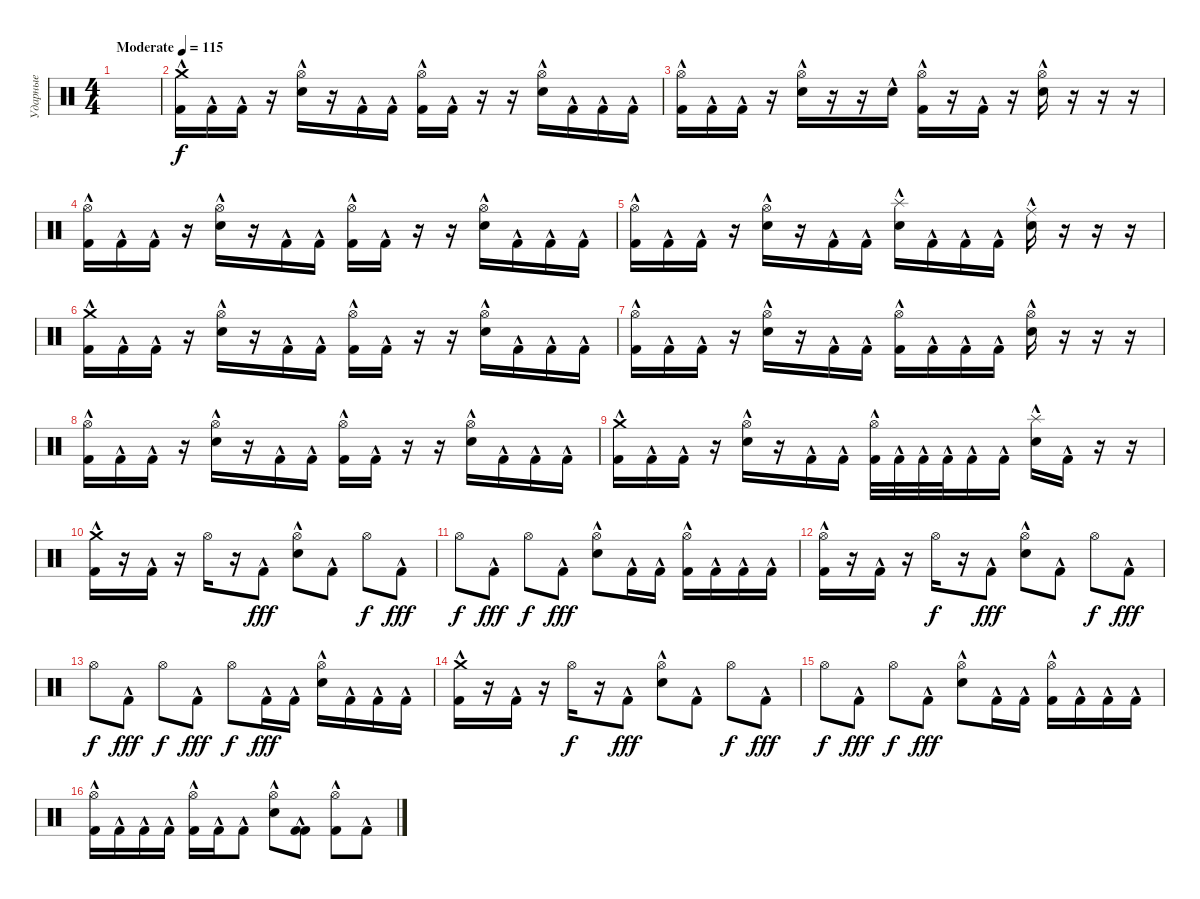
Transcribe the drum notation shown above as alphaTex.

\track ("Ударные" "Ударные") {instrument percussion}
\staff
\articulation defaults
\ts (4 4)
\tempo (115 "Moderate")
\clef neutral
\ks c
|
("Crash medium (hit)" "Kick (hit) 2"{hac}).16 "Kick (hit) 2"{hac}.16 "Kick (hit) 2"{hac}.16 r.16 ("Hi-Hat (open)" "Snare (hit) 2"{hac}).16 r.16 "Kick (hit) 2"{hac}.16 "Kick (hit) 2"{hac}.16 ("Hi-Hat (open)" "Kick (hit) 2"{hac}).16 "Kick (hit) 2"{hac}.16 r.16 r.16 ("Hi-Hat (open)" "Snare (hit) 2"{hac}).16 "Kick (hit) 2"{hac}.16 "Kick (hit) 2"{hac}.16 "Kick (hit) 2"{hac}.16 |
("Hi-Hat (open)" "Kick (hit) 2"{hac}).16 "Kick (hit) 2"{hac}.16 "Kick (hit) 2"{hac}.16 r.16 ("Hi-Hat (open)" "Snare (hit) 2"{hac}).16 r.16 r.16 "Snare (hit) 2"{hac}.16 ("Hi-Hat (open)" "Kick (hit) 2"{hac}).16 r.16 "Kick (hit) 2"{hac}.16 r.16 ("Hi-Hat (open)" "Snare (hit) 2"{hac}).16 r.16 r.16 r.16 |
("Hi-Hat (open)" "Kick (hit) 2"{hac}).16 "Kick (hit) 2"{hac}.16 "Kick (hit) 2"{hac}.16 r.16 ("Hi-Hat (open)" "Snare (hit) 2"{hac}).16 r.16 "Kick (hit) 2"{hac}.16 "Kick (hit) 2"{hac}.16 ("Hi-Hat (open)" "Kick (hit) 2"{hac}).16 "Kick (hit) 2"{hac}.16 r.16 r.16 ("Hi-Hat (open)" "Snare (hit) 2"{hac}).16 "Kick (hit) 2"{hac}.16 "Kick (hit) 2"{hac}.16 "Kick (hit) 2"{hac}.16 |
("Hi-Hat (open)" "Kick (hit) 2"{hac}).16 "Kick (hit) 2"{hac}.16 "Kick (hit) 2"{hac}.16 r.16 ("Hi-Hat (open)" "Snare (hit) 2"{hac}).16 r.16 "Kick (hit) 2"{hac}.16 "Kick (hit) 2"{hac}.16 ("Splash (hit)" "Snare (hit) 2"{hac}).16 "Kick (hit) 2"{hac}.16 "Kick (hit) 2"{hac}.16 "Kick (hit) 2"{hac}.16 ("Ride (middle)" "Snare (hit) 2"{hac}).16 r.16 r.16 r.16 |
("Crash medium (hit)" "Kick (hit) 2"{hac}).16 "Kick (hit) 2"{hac}.16 "Kick (hit) 2"{hac}.16 r.16 ("Hi-Hat (open)" "Snare (hit) 2"{hac}).16 r.16 "Kick (hit) 2"{hac}.16 "Kick (hit) 2"{hac}.16 ("Hi-Hat (open)" "Kick (hit) 2"{hac}).16 "Kick (hit) 2"{hac}.16 r.16 r.16 ("Hi-Hat (open)" "Snare (hit) 2"{hac}).16 "Kick (hit) 2"{hac}.16 "Kick (hit) 2"{hac}.16 "Kick (hit) 2"{hac}.16 |
("Hi-Hat (open)" "Kick (hit) 2"{hac}).16 "Kick (hit) 2"{hac}.16 "Kick (hit) 2"{hac}.16 r.16 ("Hi-Hat (open)" "Snare (hit) 2"{hac}).16 r.16 "Kick (hit) 2"{hac}.16 "Kick (hit) 2"{hac}.16 ("Hi-Hat (open)" "Kick (hit) 2"{hac}).16 "Kick (hit) 2"{hac}.16 "Kick (hit) 2"{hac}.16 "Kick (hit) 2"{hac}.16 ("Hi-Hat (open)" "Snare (hit) 2"{hac}).16 r.16 r.16 r.16 |
("Hi-Hat (open)" "Kick (hit) 2"{hac}).16 "Kick (hit) 2"{hac}.16 "Kick (hit) 2"{hac}.16 r.16 ("Hi-Hat (open)" "Snare (hit) 2"{hac}).16 r.16 "Kick (hit) 2"{hac}.16 "Kick (hit) 2"{hac}.16 ("Hi-Hat (open)" "Kick (hit) 2"{hac}).16 "Kick (hit) 2"{hac}.16 r.16 r.16 ("Hi-Hat (open)" "Snare (hit) 2"{hac}).16 "Kick (hit) 2"{hac}.16 "Kick (hit) 2"{hac}.16 "Kick (hit) 2"{hac}.16 |
("Crash medium (hit)" "Kick (hit) 2"{hac}).16 "Kick (hit) 2"{hac}.16 "Kick (hit) 2"{hac}.16 r.16 ("Hi-Hat (open)" "Snare (hit) 2"{hac}).16 r.16 "Kick (hit) 2"{hac}.16 "Kick (hit) 2"{hac}.16 ("Hi-Hat (open)" "Kick (hit) 2"{hac}).32 "Kick (hit) 2"{hac}.32 "Kick (hit) 2"{hac}.32 "Kick (hit) 2"{hac}.32 "Kick (hit) 2"{hac}.16 "Kick (hit) 2"{hac}.16 ("Splash (hit)" "Snare (hit) 2"{hac}).16 "Kick (hit) 2"{hac}.16 r.16 r.16 |
("Crash medium (hit)" "Kick (hit) 2"{hac}).16 r.16 "Kick (hit) 2"{hac}.16 r.16 "Hi-Hat (open)".16{dy f} r.16 "Kick (hit) 2"{hac}.8{dy fff} ("Hi-Hat (open)" "Snare (hit) 2"{hac}).8 "Kick (hit) 2"{hac}.8 "Hi-Hat (open)".8{dy f} "Kick (hit) 2"{hac}.8{dy fff} |
"Hi-Hat (open)".8{dy f} "Kick (hit) 2"{hac}.8{dy fff} "Hi-Hat (open)".8{dy f} "Kick (hit) 2"{hac}.8{dy fff} ("Hi-Hat (open)" "Snare (hit) 2"{hac}).8 "Kick (hit) 2"{hac}.16 "Kick (hit) 2"{hac}.16 ("Hi-Hat (open)" "Kick (hit) 2"{hac}).16 "Kick (hit) 2"{hac}.16 "Kick (hit) 2"{hac}.16 "Kick (hit) 2"{hac}.16 |
("Hi-Hat (open)" "Kick (hit) 2"{hac}).16 r.16 "Kick (hit) 2"{hac}.16 r.16 "Hi-Hat (open)".16{dy f} r.16 "Kick (hit) 2"{hac}.8{dy fff} ("Hi-Hat (open)" "Snare (hit) 2"{hac}).8 "Kick (hit) 2"{hac}.8 "Hi-Hat (open)".8{dy f} "Kick (hit) 2"{hac}.8{dy fff} |
"Hi-Hat (open)".8{dy f} "Kick (hit) 2"{hac}.8{dy fff} "Hi-Hat (open)".8{dy f} "Kick (hit) 2"{hac}.8{dy fff} "Hi-Hat (open)".8{dy f} "Kick (hit) 2"{hac}.16{dy fff} "Kick (hit) 2"{hac}.16 ("Hi-Hat (open)" "Snare (hit) 2"{hac}).16 "Kick (hit) 2"{hac}.16 "Kick (hit) 2"{hac}.16 "Kick (hit) 2"{hac}.16 |
("Crash medium (hit)" "Kick (hit) 2"{hac}).16 r.16 "Kick (hit) 2"{hac}.16 r.16 "Hi-Hat (open)".16{dy f} r.16 "Kick (hit) 2"{hac}.8{dy fff} ("Hi-Hat (open)" "Snare (hit) 2"{hac}).8 "Kick (hit) 2"{hac}.8 "Hi-Hat (open)".8{dy f} "Kick (hit) 2"{hac}.8{dy fff} |
"Hi-Hat (open)".8{dy f} "Kick (hit) 2"{hac}.8{dy fff} "Hi-Hat (open)".8{dy f} "Kick (hit) 2"{hac}.8{dy fff} ("Hi-Hat (open)" "Snare (hit) 2"{hac}).8 "Kick (hit) 2"{hac}.16 "Kick (hit) 2"{hac}.16 ("Hi-Hat (open)" "Kick (hit) 2"{hac}).16 "Kick (hit) 2"{hac}.16 "Kick (hit) 2"{hac}.16 "Kick (hit) 2"{hac}.16 |
("Hi-Hat (open)" "Kick (hit) 2"{hac}).16 "Kick (hit) 2"{hac}.16 "Kick (hit) 2"{hac}.16 "Kick (hit) 2"{hac}.16 ("Hi-Hat (open)" "Kick (hit) 2"{hac}).16 "Kick (hit) 2"{hac}.16 "Kick (hit) 2"{hac}.8 ("Hi-Hat (open)" "Snare (hit) 2"{hac}).8 ("Kick (hit) 2"{hac} "Kick (hit) 2"{hac}).8 ("Hi-Hat (open)" "Kick (hit) 2"{hac}).8 "Kick (hit) 2"{hac}.8
